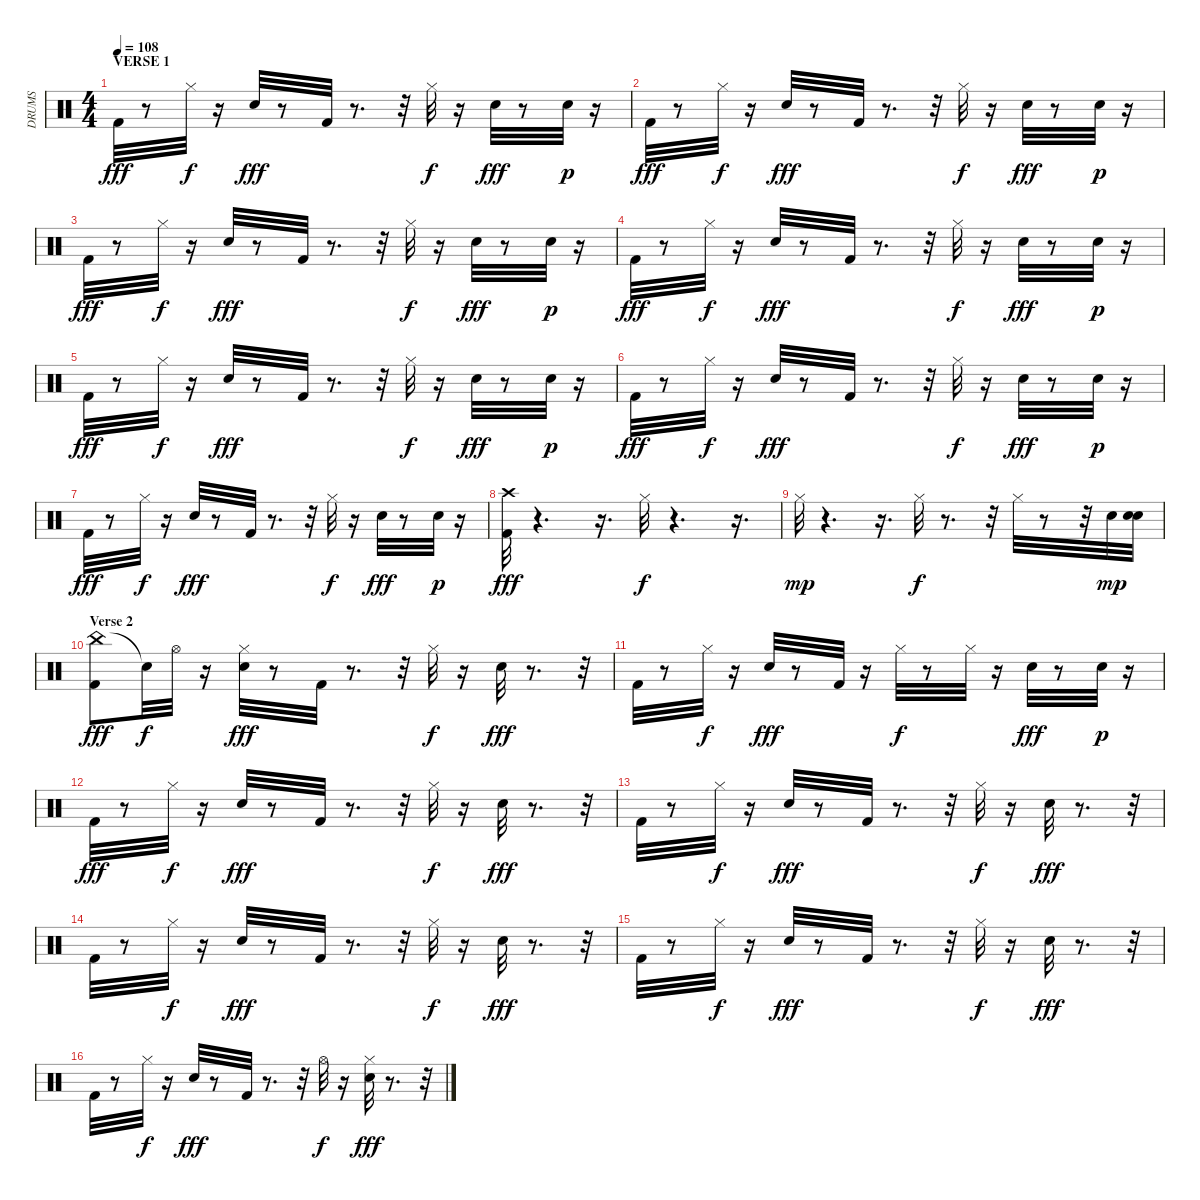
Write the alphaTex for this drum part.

\track ("DRUMS" "DRUMS") {instrument percussion}
\staff {score}
\articulation defaults
\ts (4 4)
\section ("" "VERSE 1")
\tempo 108
\clef neutral
\ks c "Kick (hit) 2".32{dy fff}
r.8 "Hi-Hat (closed)".32{dy f} r.16 "Snare (hit) 2".32{dy fff} r.8 "Kick (hit) 2".32 r.8{d} r.32 "Hi-Hat (closed)".32{dy f} r.16 "Snare (hit) 2".32{dy fff} r.8 "Snare (hit) 2".32{dy p} r.16 |
"Kick (hit) 2".32{dy fff} r.8 "Hi-Hat (closed)".32{dy f} r.16 "Snare (hit) 2".32{dy fff} r.8 "Kick (hit) 2".32 r.8{d} r.32 "Hi-Hat (closed)".32{dy f} r.16 "Snare (hit) 2".32{dy fff} r.8 "Snare (hit) 2".32{dy p} r.16 |
"Kick (hit) 2".32{dy fff} r.8 "Hi-Hat (closed)".32{dy f} r.16 "Snare (hit) 2".32{dy fff} r.8 "Kick (hit) 2".32 r.8{d} r.32 "Hi-Hat (closed)".32{dy f} r.16 "Snare (hit) 2".32{dy fff} r.8 "Snare (hit) 2".32{dy p} r.16 |
"Kick (hit) 2".32{dy fff} r.8 "Hi-Hat (closed)".32{dy f} r.16 "Snare (hit) 2".32{dy fff} r.8 "Kick (hit) 2".32 r.8{d} r.32 "Hi-Hat (closed)".32{dy f} r.16 "Snare (hit) 2".32{dy fff} r.8 "Snare (hit) 2".32{dy p} r.16 |
"Kick (hit) 2".32{dy fff} r.8 "Hi-Hat (closed)".32{dy f} r.16 "Snare (hit) 2".32{dy fff} r.8 "Kick (hit) 2".32 r.8{d} r.32 "Hi-Hat (closed)".32{dy f} r.16 "Snare (hit) 2".32{dy fff} r.8 "Snare (hit) 2".32{dy p} r.16 |
"Kick (hit) 2".32{dy fff} r.8 "Hi-Hat (closed)".32{dy f} r.16 "Snare (hit) 2".32{dy fff} r.8 "Kick (hit) 2".32 r.8{d} r.32 "Hi-Hat (closed)".32{dy f} r.16 "Snare (hit) 2".32{dy fff} r.8 "Snare (hit) 2".32{dy p} r.16 |
"Kick (hit) 2".32{dy fff} r.8 "Hi-Hat (closed)".32{dy f} r.16 "Snare (hit) 2".32{dy fff} r.8 "Kick (hit) 2".32 r.8{d} r.32 "Hi-Hat (closed)".32{dy f} r.16 "Snare (hit) 2".32{dy fff} r.8 "Snare (hit) 2".32{dy p} r.16 |
("Crash high (hit)" "Kick (hit) 2").32{dy fff} r.4{d} r.16{d} "Hi-Hat (closed)".32{dy f} r.4{d} r.16{d} |
"Hi-Hat (closed)".32{dy mp} r.4{d} r.16{d} "Hi-Hat (closed)".32{dy f} r.8{d} r.32 "Hi-Hat (closed)".32 r.8 r.32 "Snare (hit) 2".32{dy mp} ("Snare (hit) 2" "Snare (hit) 2").32 |
\section ("" "Verse 2")
("China (hit)" "Kick (hit) 2").8{dy fff} "Snare (hit)"{t}.32{dy f} "Hi-Hat (open)".32 r.16 ("Hi-Hat (closed)" "Snare (hit) 2").32{dy fff} r.8 "Kick (hit) 2".32 r.8{d} r.32 "Hi-Hat (closed)".32{dy f} r.16 "Snare (hit) 2".32{dy fff} r.8{d} r.32 |
"Kick (hit) 2".32 r.8 "Hi-Hat (closed)".32{dy f} r.16 "Snare (hit) 2".32{dy fff} r.8 "Kick (hit) 2".32 r.16 "Hi-Hat (closed)".32{dy f} r.8 "Hi-Hat (closed)".32 r.16 "Snare (hit) 2".32{dy fff} r.8 "Snare (hit) 2".32{dy p} r.16 |
"Kick (hit) 2".32{dy fff} r.8 "Hi-Hat (closed)".32{dy f} r.16 "Snare (hit) 2".32{dy fff} r.8 "Kick (hit) 2".32 r.8{d} r.32 "Hi-Hat (closed)".32{dy f} r.16 "Snare (hit) 2".32{dy fff} r.8{d} r.32 |
"Kick (hit) 2".32 r.8 "Hi-Hat (closed)".32{dy f} r.16 "Snare (hit) 2".32{dy fff} r.8 "Kick (hit) 2".32 r.8{d} r.32 "Hi-Hat (closed)".32{dy f} r.16 "Snare (hit) 2".32{dy fff} r.8{d} r.32 |
"Kick (hit) 2".32 r.8 "Hi-Hat (closed)".32{dy f} r.16 "Snare (hit) 2".32{dy fff} r.8 "Kick (hit) 2".32 r.8{d} r.32 "Hi-Hat (closed)".32{dy f} r.16 "Snare (hit) 2".32{dy fff} r.8{d} r.32 |
"Kick (hit) 2".32 r.8 "Hi-Hat (closed)".32{dy f} r.16 "Snare (hit) 2".32{dy fff} r.8 "Kick (hit) 2".32 r.8{d} r.32 "Hi-Hat (closed)".32{dy f} r.16 "Snare (hit) 2".32{dy fff} r.8{d} r.32 |
"Kick (hit) 2".32 r.8 "Hi-Hat (closed)".32{dy f} r.16 "Snare (hit) 2".32{dy fff} r.8 "Kick (hit) 2".32 r.8{d} r.32 "Hi-Hat (open)".32{dy f} r.16 ("Hi-Hat (closed)" "Snare (hit) 2").32{dy fff} r.8{d} r.32
